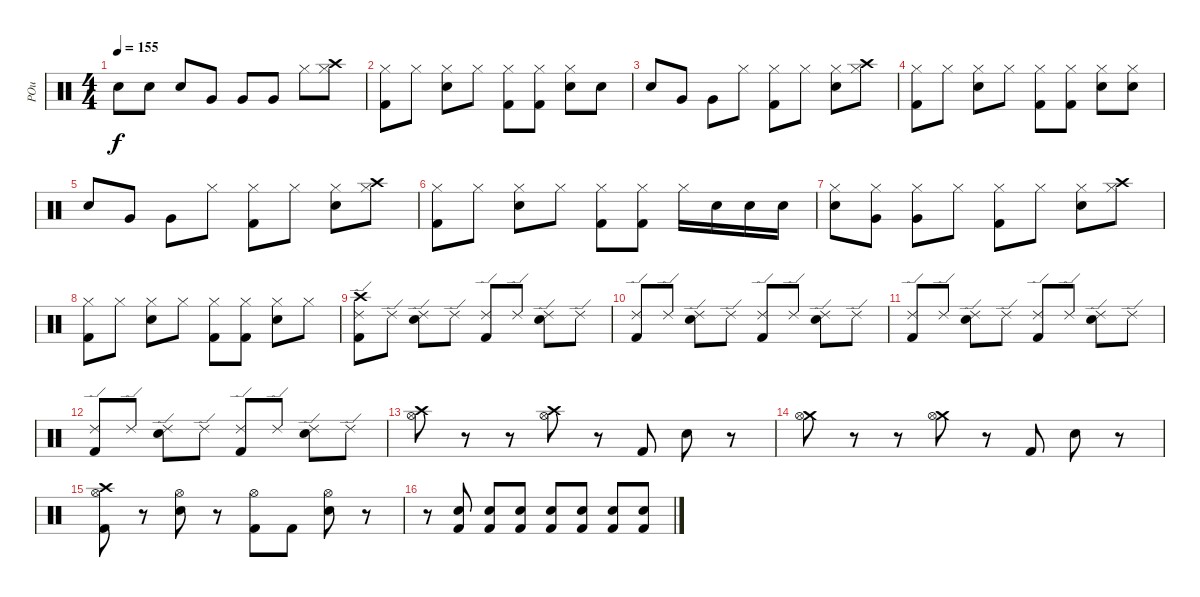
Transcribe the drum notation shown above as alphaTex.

\track ("POu" "POu") {instrument percussion}
\staff {score}
\articulation defaults
\ts (4 4)
\tempo 155
\clef neutral
\ks c "Electric Snare (hit)".8{dy f} "Electric Snare (hit)".8 "Electric Snare (hit)".8 "Very Low Tom (hit)".8 "Very Low Tom (hit)".8 "Very Low Tom (hit)".8 "Hi-Hat (closed)".8
("Crash high (hit)" "Hi-Hat (closed)").8 |
("Kick (hit) 2" "Hi-Hat (closed)").8 "Hi-Hat (closed)".8 ("Electric Snare (hit)" "Hi-Hat (closed)").8 "Hi-Hat (closed)".8 ("Kick (hit) 2" "Hi-Hat (closed)").8 ("Kick (hit) 2" "Hi-Hat (closed)").8 ("Electric Snare (hit)" "Hi-Hat (closed)").8 "Electric Snare (hit)".8 |
"Electric Snare (hit)".8 "Very Low Tom (hit)".8 "Very Low Tom (hit)".8 "Hi-Hat (closed)".8 ("Kick (hit) 2" "Hi-Hat (closed)").8 "Hi-Hat (closed)".8 ("Electric Snare (hit)" "Hi-Hat (closed)").8 ("Crash high (hit)" "Hi-Hat (closed)").8 |
("Kick (hit) 2" "Hi-Hat (closed)").8 "Hi-Hat (closed)".8 ("Electric Snare (hit)" "Hi-Hat (closed)").8 "Hi-Hat (closed)".8 ("Kick (hit) 2" "Hi-Hat (closed)").8 ("Kick (hit) 2" "Hi-Hat (closed)").8 ("Electric Snare (hit)" "Hi-Hat (closed)").8 ("Electric Snare (hit)" "Hi-Hat (closed)").8 |
"Electric Snare (hit)".8 "Very Low Tom (hit)".8 "Very Low Tom (hit)".8 "Hi-Hat (closed)".8 ("Kick (hit) 2" "Hi-Hat (closed)").8 "Hi-Hat (closed)".8 ("Electric Snare (hit)" "Hi-Hat (closed)").8 ("Crash high (hit)" "Hi-Hat (closed)").8 |
("Kick (hit) 2" "Hi-Hat (closed)").8 "Hi-Hat (closed)".8 ("Electric Snare (hit)" "Hi-Hat (closed)").8 "Hi-Hat (closed)".8 ("Kick (hit) 2" "Hi-Hat (closed)").8 ("Kick (hit) 2" "Hi-Hat (closed)").8 "Hi-Hat (closed)".16 "Electric Snare (hit)".16 "Electric Snare (hit)".16 "Electric Snare (hit)".16 |
("Electric Snare (hit)" "Hi-Hat (closed)").8 ("Very Low Tom (hit)" "Hi-Hat (closed)").8 ("Very Low Tom (hit)" "Hi-Hat (closed)").8 "Hi-Hat (closed)".8 ("Kick (hit) 2" "Hi-Hat (closed)").8 "Hi-Hat (closed)".8 ("Electric Snare (hit)" "Hi-Hat (closed)").8 ("Crash high (hit)" "Hi-Hat (closed)").8 |
("Kick (hit) 2" "Hi-Hat (closed)").8 "Hi-Hat (closed)".8 ("Electric Snare (hit)" "Hi-Hat (closed)").8 "Hi-Hat (closed)".8 ("Kick (hit) 2" "Hi-Hat (closed)").8 ("Kick (hit) 2" "Hi-Hat (closed)").8 ("Electric Snare (hit)" "Hi-Hat (closed)").8 "Hi-Hat (closed)".8 |
("Crash high (hit)" "Kick (hit) 2" "Ride (edge) 2").8 "Ride (edge) 2".8 ("Electric Snare (hit)" "Ride (edge) 2").8 "Ride (edge) 2".8 ("Kick (hit) 2" "Ride (edge) 2").8 "Ride (edge) 2".8 ("Electric Snare (hit)" "Ride (edge) 2").8 "Ride (edge) 2".8 |
("Kick (hit) 2" "Ride (edge) 2").8 "Ride (edge) 2".8 ("Electric Snare (hit)" "Ride (edge) 2").8 "Ride (edge) 2".8 ("Kick (hit) 2" "Ride (edge) 2").8 "Ride (edge) 2".8 ("Electric Snare (hit)" "Ride (edge) 2").8 "Ride (edge) 2".8 |
("Kick (hit) 2" "Ride (edge) 2").8 "Ride (edge) 2".8 ("Electric Snare (hit)" "Ride (edge) 2").8 "Ride (edge) 2".8 ("Kick (hit) 2" "Ride (edge) 2").8 "Ride (edge) 2".8 ("Electric Snare (hit)" "Ride (edge) 2").8 "Ride (edge) 2".8 |
("Kick (hit) 2" "Ride (edge) 2").8 "Ride (edge) 2".8 ("Electric Snare (hit)" "Ride (edge) 2").8 "Ride (edge) 2".8 ("Kick (hit) 2" "Ride (edge) 2").8 "Ride (edge) 2".8 ("Electric Snare (hit)" "Ride (edge) 2").8 "Ride (edge) 2".8 |
("Crash high (hit)" "Hi-Hat (open)").8 r.8 r.8 ("Crash high (hit)" "Hi-Hat (open)").8 r.8 "Kick (hit) 2".8 "Electric Snare (hit)".8 r.8 |
("Crash medium (hit)" "Hi-Hat (open)").8 r.8 r.8 ("Crash medium (hit)" "Hi-Hat (open)").8 r.8 "Kick (hit) 2".8 "Electric Snare (hit)".8 r.8 |
("Crash high (hit)" "Kick (hit) 2" "Hi-Hat (open)").8 r.8 ("Electric Snare (hit)" "Hi-Hat (open)").8 r.8 ("Kick (hit) 2" "Hi-Hat (open)").8 "Kick (hit) 2".8 ("Electric Snare (hit)" "Hi-Hat (open)").8 r.8 |
r.8 ("Electric Snare (hit)" "Kick (hit) 2").8 ("Electric Snare (hit)" "Kick (hit) 2").8 ("Electric Snare (hit)" "Kick (hit) 2").8 ("Electric Snare (hit)" "Kick (hit) 2").8 ("Electric Snare (hit)" "Kick (hit) 2").8 ("Electric Snare (hit)" "Kick (hit) 2").8 ("Electric Snare (hit)" "Kick (hit) 2").8
